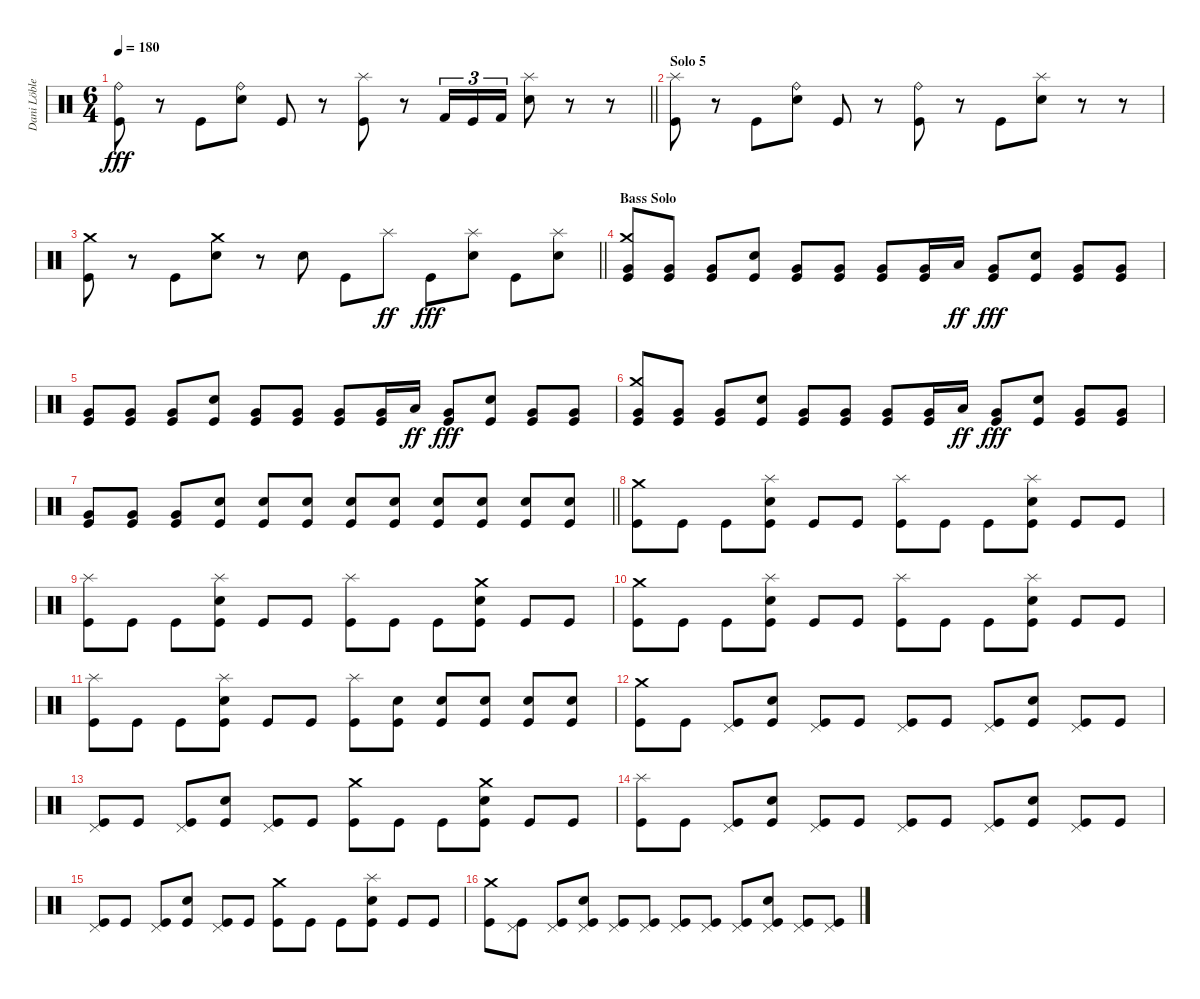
\track ("Dani Löble" "Dani Löble") {instrument percussion}
\staff {score}
\articulation defaults
\ts (6 4)
\tempo 180
\clef neutral
\barLineRight lightlight
\ks c
("Ride (bell)" "Kick (hit)").8{dy fff} r.8 "Kick (hit)".8 ("Ride (bell)" "Electric Snare (hit)").8 "Kick (hit)".8 r.8 ("Splash (hit)" "Kick (hit)").8 r.8 "Kick (hit) 2".16{tu (3 2)} "Kick (hit)".16{tu (3 2)} "Kick (hit) 2".16{tu (3 2)} ("Splash (hit)" "Electric Snare (hit)").8 r.8 r.8 |
\section ("" "Solo 5")
("Splash (hit)" "Kick (hit)").8 r.8 "Kick (hit)".8 ("Ride (bell)" "Electric Snare (hit)").8 "Kick (hit)".8 r.8 ("Ride (bell)" "Kick (hit)").8 r.8 "Kick (hit)".8 ("Splash (hit)" "Electric Snare (hit)").8 r.8 r.8 |
\barLineRight lightlight
("Crash medium (hit)" "Kick (hit)").8 r.8 "Kick (hit)".8 ("Crash medium (hit)" "Electric Snare (hit)").8 r.8 "Electric Snare (hit)".8 "Kick (hit)".8 "Splash (hit)".8{dy ff} "Kick (hit)".8{dy fff} ("Splash (hit)" "Electric Snare (hit)").8 "Kick (hit)".8 ("Splash (hit)" "Electric Snare (hit)").8 |
\section ("" "Bass Solo")
("Crash medium (hit)" "Very Low Tom (hit)" "Kick (hit)").8 ("Very Low Tom (hit)" "Kick (hit)").8 ("Very Low Tom (hit)" "Kick (hit)").8 ("Electric Snare (hit)" "Kick (hit)").8 ("Very Low Tom (hit)" "Kick (hit)").8 ("Very Low Tom (hit)" "Kick (hit)").8 ("Very Low Tom (hit)" "Kick (hit)").8 ("Very Low Tom (hit)" "Kick (hit)").16 "Low Floor Tom (hit)".16{dy ff} ("Very Low Tom (hit)" "Kick (hit)").8{dy fff} ("Electric Snare (hit)" "Kick (hit)").8 ("Very Low Tom (hit)" "Kick (hit)").8 ("Very Low Tom (hit)" "Kick (hit)").8 |
("Very Low Tom (hit)" "Kick (hit)").8 ("Very Low Tom (hit)" "Kick (hit)").8 ("Very Low Tom (hit)" "Kick (hit)").8 ("Electric Snare (hit)" "Kick (hit)").8 ("Very Low Tom (hit)" "Kick (hit)").8 ("Very Low Tom (hit)" "Kick (hit)").8 ("Very Low Tom (hit)" "Kick (hit)").8 ("Very Low Tom (hit)" "Kick (hit)").16 "Low Floor Tom (hit)".16{dy ff} ("Very Low Tom (hit)" "Kick (hit)").8{dy fff} ("Electric Snare (hit)" "Kick (hit)").8 ("Very Low Tom (hit)" "Kick (hit)").8 ("Very Low Tom (hit)" "Kick (hit)").8 |
("Crash medium (hit)" "Very Low Tom (hit)" "Kick (hit)").8 ("Very Low Tom (hit)" "Kick (hit)").8 ("Very Low Tom (hit)" "Kick (hit)").8 ("Electric Snare (hit)" "Kick (hit)").8 ("Very Low Tom (hit)" "Kick (hit)").8 ("Very Low Tom (hit)" "Kick (hit)").8 ("Very Low Tom (hit)" "Kick (hit)").8 ("Very Low Tom (hit)" "Kick (hit)").16 "Low Floor Tom (hit)".16{dy ff} ("Very Low Tom (hit)" "Kick (hit)").8{dy fff} ("Electric Snare (hit)" "Kick (hit)").8 ("Very Low Tom (hit)" "Kick (hit)").8 ("Very Low Tom (hit)" "Kick (hit)").8 |
\barLineRight lightlight
("Very Low Tom (hit)" "Kick (hit)").8 ("Very Low Tom (hit)" "Kick (hit)").8 ("Very Low Tom (hit)" "Kick (hit)").8 ("Electric Snare (hit)" "Kick (hit)").8 ("Electric Snare (hit)" "Kick (hit)").8 ("Electric Snare (hit)" "Kick (hit)").8 ("Electric Snare (hit)" "Kick (hit)").8 ("Electric Snare (hit)" "Kick (hit)").8 ("Electric Snare (hit)" "Kick (hit)").8 ("Electric Snare (hit)" "Kick (hit)").8 ("Electric Snare (hit)" "Kick (hit)").8 ("Electric Snare (hit)" "Kick (hit)").8 |
\section ("" "")
("Crash medium (hit)" "Kick (hit)").8 "Kick (hit)".8 "Kick (hit)".8 ("Splash (hit)" "Electric Snare (hit)" "Kick (hit)").8 "Kick (hit)".8 "Kick (hit)".8 ("Splash (hit)" "Kick (hit)").8 "Kick (hit)".8 "Kick (hit)".8 ("Splash (hit)" "Electric Snare (hit)" "Kick (hit)").8 "Kick (hit)".8 "Kick (hit)".8 |
("Splash (hit)" "Kick (hit)").8 "Kick (hit)".8 "Kick (hit)".8 ("Splash (hit)" "Electric Snare (hit)" "Kick (hit)").8 "Kick (hit)".8 "Kick (hit)".8 ("Splash (hit)" "Kick (hit)").8 "Kick (hit)".8 "Kick (hit)".8 ("Crash medium (hit)" "Electric Snare (hit)" "Kick (hit)").8 "Kick (hit)".8 "Kick (hit)".8 |
("Crash medium (hit)" "Kick (hit)").8 "Kick (hit)".8 "Kick (hit)".8 ("Splash (hit)" "Electric Snare (hit)" "Kick (hit)").8 "Kick (hit)".8 "Kick (hit)".8 ("Splash (hit)" "Kick (hit)").8 "Kick (hit)".8 "Kick (hit)".8 ("Splash (hit)" "Electric Snare (hit)" "Kick (hit)").8 "Kick (hit)".8 "Kick (hit)".8 |
("Splash (hit)" "Kick (hit)").8 "Kick (hit)".8 "Kick (hit)".8 ("Splash (hit)" "Electric Snare (hit)" "Kick (hit)").8 "Kick (hit)".8 "Kick (hit)".8 ("Splash (hit)" "Kick (hit)").8 ("Electric Snare (hit)" "Kick (hit)").8 ("Electric Snare (hit)" "Kick (hit)").8 ("Electric Snare (hit)" "Kick (hit)").8 ("Electric Snare (hit)" "Kick (hit)").8 ("Electric Snare (hit)" "Kick (hit)").8 |
("Crash medium (hit)" "Kick (hit)").8 "Kick (hit)".8 ("Pedal Hi-Hat (hit)" "Kick (hit)").8 ("Electric Snare (hit)" "Kick (hit)").8 ("Pedal Hi-Hat (hit)" "Kick (hit)").8 "Kick (hit)".8 ("Pedal Hi-Hat (hit)" "Kick (hit)").8 "Kick (hit)".8 ("Pedal Hi-Hat (hit)" "Kick (hit)").8 ("Electric Snare (hit)" "Kick (hit)").8 ("Pedal Hi-Hat (hit)" "Kick (hit)").8 "Kick (hit)".8 |
("Pedal Hi-Hat (hit)" "Kick (hit)").8 "Kick (hit)".8 ("Pedal Hi-Hat (hit)" "Kick (hit)").8 ("Electric Snare (hit)" "Kick (hit)").8 ("Pedal Hi-Hat (hit)" "Kick (hit)").8 "Kick (hit)".8 ("Crash medium (hit)" "Kick (hit)").8 "Kick (hit)".8 "Kick (hit)".8 ("Crash medium (hit)" "Electric Snare (hit)" "Kick (hit)").8 "Kick (hit)".8 "Kick (hit)".8 |
("Splash (hit)" "Kick (hit)").8 "Kick (hit)".8 ("Pedal Hi-Hat (hit)" "Kick (hit)").8 ("Electric Snare (hit)" "Kick (hit)").8 ("Pedal Hi-Hat (hit)" "Kick (hit)").8 "Kick (hit)".8 ("Pedal Hi-Hat (hit)" "Kick (hit)").8 "Kick (hit)".8 ("Pedal Hi-Hat (hit)" "Kick (hit)").8 ("Electric Snare (hit)" "Kick (hit)").8 ("Pedal Hi-Hat (hit)" "Kick (hit)").8 "Kick (hit)".8 |
("Pedal Hi-Hat (hit)" "Kick (hit)").8 "Kick (hit)".8 ("Pedal Hi-Hat (hit)" "Kick (hit)").8 ("Electric Snare (hit)" "Kick (hit)").8 ("Pedal Hi-Hat (hit)" "Kick (hit)").8 "Kick (hit)".8 ("Crash medium (hit)" "Kick (hit)").8 "Kick (hit)".8 "Kick (hit)".8 ("Splash (hit)" "Electric Snare (hit)" "Kick (hit)").8 "Kick (hit)".8 "Kick (hit)".8 |
("Crash medium (hit)" "Kick (hit)").8 ("Pedal Hi-Hat (hit)" "Kick (hit)").8 ("Pedal Hi-Hat (hit)" "Kick (hit)").8 ("Pedal Hi-Hat (hit)" "Electric Snare (hit)" "Kick (hit)").8 ("Pedal Hi-Hat (hit)" "Kick (hit)").8 ("Pedal Hi-Hat (hit)" "Kick (hit)").8 ("Pedal Hi-Hat (hit)" "Kick (hit)").8 ("Pedal Hi-Hat (hit)" "Kick (hit)").8 ("Pedal Hi-Hat (hit)" "Kick (hit)").8 ("Pedal Hi-Hat (hit)" "Electric Snare (hit)" "Kick (hit)").8 ("Pedal Hi-Hat (hit)" "Kick (hit)").8 ("Pedal Hi-Hat (hit)" "Kick (hit)").8
